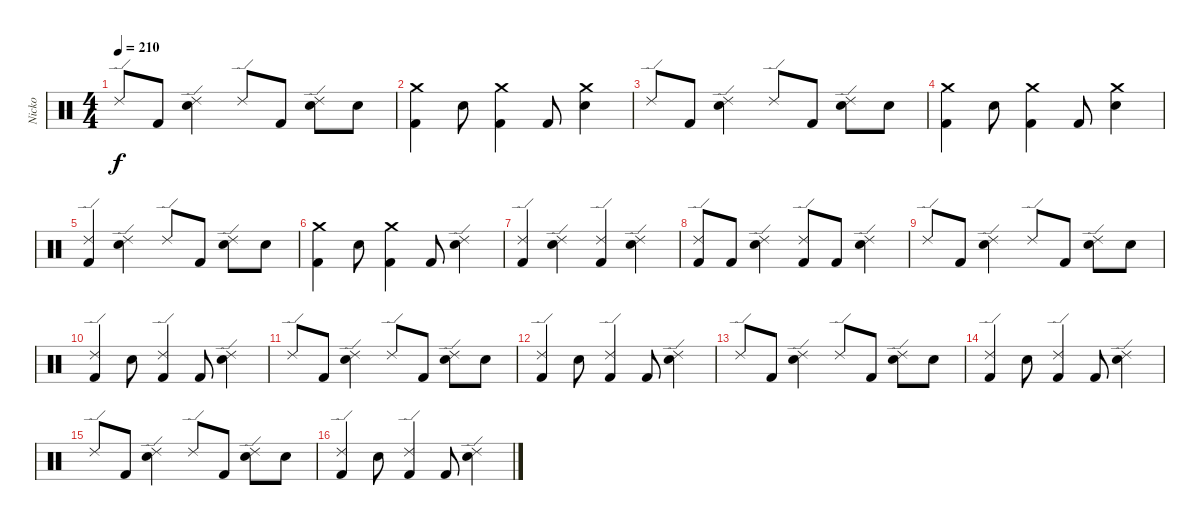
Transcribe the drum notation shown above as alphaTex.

\track ("Nicko" "Nicko") {instrument percussion}
\staff {score}
\articulation defaults
\ts (4 4)
\tempo 210
\clef neutral
\ks c "Ride (edge) 2".8{dy f} "Kick (hit) 2".8
("Ride (edge) 2" "Electric Snare (hit)").4 "Ride (edge) 2".8 "Kick (hit) 2".8 ("Ride (edge) 2" "Electric Snare (hit)").8 "Electric Snare (hit)".8 |
("Crash medium (hit)" "Kick (hit) 2").4 "Electric Snare (hit)".8 ("Crash medium (hit)" "Kick (hit) 2").4 "Kick (hit) 2".8 ("Crash medium (hit)" "Electric Snare (hit)").4 |
"Ride (edge) 2".8 "Kick (hit) 2".8 ("Ride (edge) 2" "Electric Snare (hit)").4 "Ride (edge) 2".8 "Kick (hit) 2".8 ("Ride (edge) 2" "Electric Snare (hit)").8 "Electric Snare (hit)".8 |
("Crash medium (hit)" "Kick (hit) 2").4 "Electric Snare (hit)".8 ("Crash medium (hit)" "Kick (hit) 2").4 "Kick (hit) 2".8 ("Crash medium (hit)" "Electric Snare (hit)").4 |
("Ride (edge) 2" "Kick (hit) 2").4 ("Ride (edge) 2" "Electric Snare (hit)").4 "Ride (edge) 2".8 "Kick (hit) 2".8 ("Ride (edge) 2" "Electric Snare (hit)").8 "Electric Snare (hit)".8 |
("Crash medium (hit)" "Kick (hit) 2").4 "Electric Snare (hit)".8 ("Crash medium (hit)" "Kick (hit) 2").4 "Kick (hit) 2".8 ("Ride (edge) 2" "Electric Snare (hit)").4 |
("Ride (edge) 2" "Kick (hit) 2").4 ("Ride (edge) 2" "Electric Snare (hit)").4 ("Ride (edge) 2" "Kick (hit) 2").4 ("Ride (edge) 2" "Electric Snare (hit)").4 |
("Ride (edge) 2" "Kick (hit) 2").8 "Kick (hit) 2".8 ("Ride (edge) 2" "Electric Snare (hit)").4 ("Ride (edge) 2" "Kick (hit) 2").8 "Kick (hit) 2".8 ("Ride (edge) 2" "Electric Snare (hit)").4 |
"Ride (edge) 2".8 "Kick (hit) 2".8 ("Ride (edge) 2" "Electric Snare (hit)").4 "Ride (edge) 2".8 "Kick (hit) 2".8 ("Ride (edge) 2" "Electric Snare (hit)").8 "Electric Snare (hit)".8 |
("Ride (edge) 2" "Kick (hit) 2").4 "Electric Snare (hit)".8 ("Ride (edge) 2" "Kick (hit) 2").4 "Kick (hit) 2".8 ("Ride (edge) 2" "Electric Snare (hit)").4 |
"Ride (edge) 2".8 "Kick (hit) 2".8 ("Ride (edge) 2" "Electric Snare (hit)").4 "Ride (edge) 2".8 "Kick (hit) 2".8 ("Ride (edge) 2" "Electric Snare (hit)").8 "Electric Snare (hit)".8 |
("Ride (edge) 2" "Kick (hit) 2").4 "Electric Snare (hit)".8 ("Ride (edge) 2" "Kick (hit) 2").4 "Kick (hit) 2".8 ("Ride (edge) 2" "Electric Snare (hit)").4 |
"Ride (edge) 2".8 "Kick (hit) 2".8 ("Ride (edge) 2" "Electric Snare (hit)").4 "Ride (edge) 2".8 "Kick (hit) 2".8 ("Ride (edge) 2" "Electric Snare (hit)").8 "Electric Snare (hit)".8 |
("Ride (edge) 2" "Kick (hit) 2").4 "Electric Snare (hit)".8 ("Ride (edge) 2" "Kick (hit) 2").4 "Kick (hit) 2".8 ("Ride (edge) 2" "Electric Snare (hit)").4 |
"Ride (edge) 2".8 "Kick (hit) 2".8 ("Ride (edge) 2" "Electric Snare (hit)").4 "Ride (edge) 2".8 "Kick (hit) 2".8 ("Ride (edge) 2" "Electric Snare (hit)").8 "Electric Snare (hit)".8 |
("Ride (edge) 2" "Kick (hit) 2").4 "Electric Snare (hit)".8 ("Ride (edge) 2" "Kick (hit) 2").4 "Kick (hit) 2".8 ("Ride (edge) 2" "Electric Snare (hit)").4
